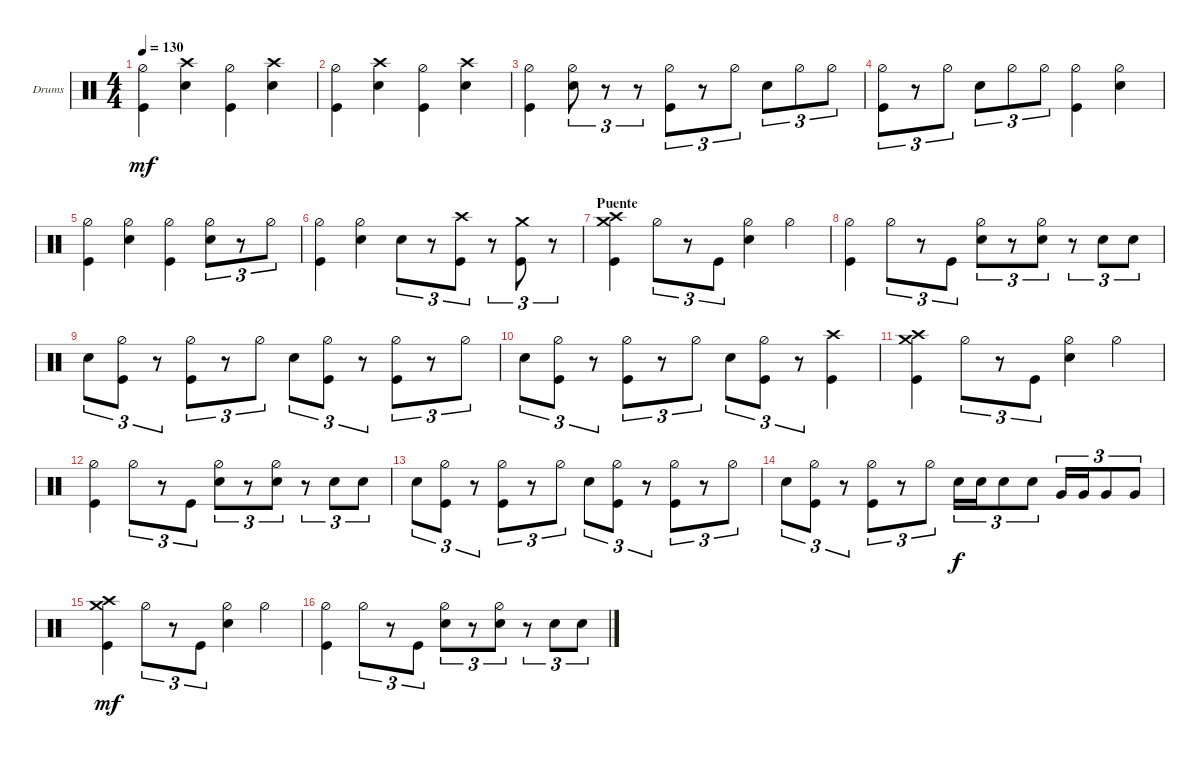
\bracketExtendMode groupsimilarinstruments
\firstSystemTrackNameOrientation horizontal
\otherSystemsTrackNameOrientation horizontal
\track ("Drums Ghoul" "Drums") {instrument percussion}
\staff {score}
\articulation defaults
\ts (4 4)
\tempo 130
\clef neutral
\ks c
("Kick (hit)" "Hi-Hat (half)").4{dy mf} ("Snare (hit) 2" "Crash high (hit)").4 ("Kick (hit)" "Hi-Hat (half)").4 ("Snare (hit) 2" "Crash high (hit)").4 |
("Kick (hit)" "Hi-Hat (half)").4 ("Snare (hit) 2" "Crash high (hit)").4 ("Kick (hit)" "Hi-Hat (half)").4 ("Snare (hit) 2" "Crash high (hit)").4 |
("Kick (hit)" "Hi-Hat (half)").4 ("Snare (hit) 2" "Hi-Hat (half)").8{tu (3 2)} r.8{tu (3 2)} r.8{tu (3 2)} ("Kick (hit)" "Hi-Hat (half)").8{tu (3 2)} r.8{tu (3 2)} "Hi-Hat (half)".8{tu (3 2)} "Snare (hit) 2".8{tu (3 2)} "Hi-Hat (half)".8{tu (3 2)} "Hi-Hat (half)".8{tu (3 2)} |
("Kick (hit)" "Hi-Hat (half)").8{tu (3 2)} r.8{tu (3 2)} "Hi-Hat (half)".8{tu (3 2)} "Snare (hit) 2".8{tu (3 2)} "Hi-Hat (half)".8{tu (3 2)} "Hi-Hat (half)".8{tu (3 2)} ("Kick (hit)" "Hi-Hat (half)").4 ("Snare (hit) 2" "Hi-Hat (half)").4 |
("Kick (hit)" "Hi-Hat (half)").4 ("Snare (hit) 2" "Hi-Hat (half)").4 ("Kick (hit)" "Hi-Hat (half)").4 ("Snare (hit) 2" "Hi-Hat (half)").8{tu (3 2)} r.8{tu (3 2)} "Hi-Hat (half)".8{tu (3 2)} |
("Kick (hit)" "Hi-Hat (half)").4 ("Snare (hit) 2" "Hi-Hat (half)").4 "Snare (hit) 2".8{tu (3 2)} r.8{tu (3 2)} ("Kick (hit)" "Crash high (hit)").8{tu (3 2)} r.8{tu (3 2)} ("Kick (hit)" "Crash medium (hit)").8{tu (3 2)} r.8{tu (3 2)} |
\section ("" "Puente")
("Crash high (hit)" "Kick (hit)" "Crash medium (hit)").4 "Hi-Hat (half)".8{tu (3 2)} r.8{tu (3 2)} "Kick (hit)".8{tu (3 2)} ("Hi-Hat (half)" "Snare (hit) 2").4 "Hi-Hat (half)".4 |
("Kick (hit)" "Hi-Hat (half)").4 "Hi-Hat (half)".8{tu (3 2)} r.8{tu (3 2)} "Kick (hit)".8{tu (3 2)} ("Hi-Hat (half)" "Snare (hit) 2").8{tu (3 2)} r.8{tu (3 2)} ("Snare (hit) 2" "Hi-Hat (half)").8{tu (3 2)} r.8{tu (3 2)} "Snare (hit) 2".8{tu (3 2)} "Snare (hit) 2".8{tu (3 2)} |
"Snare (hit) 2".8{tu (3 2)} ("Kick (hit)" "Hi-Hat (half)").8{tu (3 2)} r.8{tu (3 2)} ("Kick (hit)" "Hi-Hat (half)").8{tu (3 2)} r.8{tu (3 2)} "Hi-Hat (half)".8{tu (3 2)} "Snare (hit) 2".8{tu (3 2)} ("Kick (hit)" "Hi-Hat (half)").8{tu (3 2)} r.8{tu (3 2)} ("Kick (hit)" "Hi-Hat (half)").8{tu (3 2)} r.8{tu (3 2)} "Hi-Hat (half)".8{tu (3 2)} |
"Snare (hit) 2".8{tu (3 2)} ("Kick (hit)" "Hi-Hat (half)").8{tu (3 2)} r.8{tu (3 2)} ("Kick (hit)" "Hi-Hat (half)").8{tu (3 2)} r.8{tu (3 2)} "Hi-Hat (half)".8{tu (3 2)} "Snare (hit) 2".8{tu (3 2)} ("Kick (hit)" "Hi-Hat (half)").8{tu (3 2)} r.8{tu (3 2)} ("Kick (hit)" "Crash high (hit)").4 |
("Crash high (hit)" "Kick (hit)" "Crash medium (hit)").4 "Hi-Hat (half)".8{tu (3 2)} r.8{tu (3 2)} "Kick (hit)".8{tu (3 2)} ("Hi-Hat (half)" "Snare (hit) 2").4 "Hi-Hat (half)".4 |
("Kick (hit)" "Hi-Hat (half)").4 "Hi-Hat (half)".8{tu (3 2)} r.8{tu (3 2)} "Kick (hit)".8{tu (3 2)} ("Hi-Hat (half)" "Snare (hit) 2").8{tu (3 2)} r.8{tu (3 2)} ("Snare (hit) 2" "Hi-Hat (half)").8{tu (3 2)} r.8{tu (3 2)} "Snare (hit) 2".8{tu (3 2)} "Snare (hit) 2".8{tu (3 2)} |
"Snare (hit) 2".8{tu (3 2)} ("Kick (hit)" "Hi-Hat (half)").8{tu (3 2)} r.8{tu (3 2)} ("Kick (hit)" "Hi-Hat (half)").8{tu (3 2)} r.8{tu (3 2)} "Hi-Hat (half)".8{tu (3 2)} "Snare (hit) 2".8{tu (3 2)} ("Kick (hit)" "Hi-Hat (half)").8{tu (3 2)} r.8{tu (3 2)} ("Kick (hit)" "Hi-Hat (half)").8{tu (3 2)} r.8{tu (3 2)} "Hi-Hat (half)".8{tu (3 2)} |
"Snare (hit) 2".8{tu (3 2)} ("Kick (hit)" "Hi-Hat (half)").8{tu (3 2)} r.8{tu (3 2)} ("Kick (hit)" "Hi-Hat (half)").8{tu (3 2)} r.8{tu (3 2)} "Hi-Hat (half)".8{tu (3 2)} "Snare (hit) 2".16{tu (3 2) dy f} "Snare (hit) 2".16{tu (3 2)} "Snare (hit) 2".8{tu (3 2)} "Snare (hit) 2".8{tu (3 2)} "Very Low Tom (hit)".16{tu (3 2)} "Very Low Tom (hit)".16{tu (3 2)} "Very Low Tom (hit)".8{tu (3 2)} "Very Low Tom (hit)".8{tu (3 2)} |
("Crash high (hit)" "Kick (hit)" "Crash medium (hit)").4{dy mf} "Hi-Hat (half)".8{tu (3 2)} r.8{tu (3 2)} "Kick (hit)".8{tu (3 2)} ("Hi-Hat (half)" "Snare (hit) 2").4 "Hi-Hat (half)".4 |
("Kick (hit)" "Hi-Hat (half)").4 "Hi-Hat (half)".8{tu (3 2)} r.8{tu (3 2)} "Kick (hit)".8{tu (3 2)} ("Hi-Hat (half)" "Snare (hit) 2").8{tu (3 2)} r.8{tu (3 2)} ("Snare (hit) 2" "Hi-Hat (half)").8{tu (3 2)} r.8{tu (3 2)} "Snare (hit) 2".8{tu (3 2)} "Snare (hit) 2".8{tu (3 2)}
